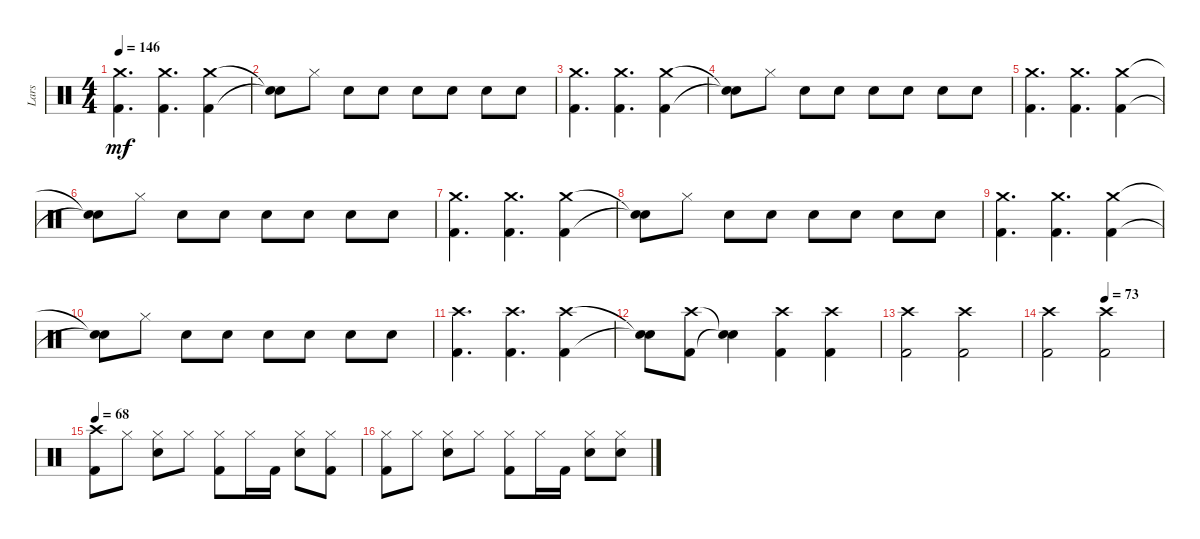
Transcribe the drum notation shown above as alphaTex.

\track ("Lars" "Lars") {instrument percussion}
\staff {score}
\articulation defaults
\ts (4 4)
\tempo 146
\clef neutral
\ks c
("Crash medium (hit)" "Kick (hit) 2").4{d dy mf} ("Crash medium (hit)" "Kick (hit) 2").4{d} ("Crash medium (hit)" "Kick (hit) 2").4 |
("Snare (hit)"{t} "Snare (hit)"{t}).8 "Hi-Hat (closed)".8 "Electric Snare (hit)".8 "Electric Snare (hit)".8 "Electric Snare (hit)".8 "Electric Snare (hit)".8 "Electric Snare (hit)".8 "Electric Snare (hit)".8 |
("Crash medium (hit)" "Kick (hit) 2").4{d} ("Crash medium (hit)" "Kick (hit) 2").4{d} ("Crash medium (hit)" "Kick (hit) 2").4 |
("Snare (hit)"{t} "Snare (hit)"{t}).8 "Hi-Hat (closed)".8 "Electric Snare (hit)".8 "Electric Snare (hit)".8 "Electric Snare (hit)".8 "Electric Snare (hit)".8 "Electric Snare (hit)".8 "Electric Snare (hit)".8 |
("Crash medium (hit)" "Kick (hit) 2").4{d} ("Crash medium (hit)" "Kick (hit) 2").4{d} ("Crash medium (hit)" "Kick (hit) 2").4 |
("Snare (hit)"{t} "Snare (hit)"{t}).8 "Hi-Hat (closed)".8 "Electric Snare (hit)".8 "Electric Snare (hit)".8 "Electric Snare (hit)".8 "Electric Snare (hit)".8 "Electric Snare (hit)".8 "Electric Snare (hit)".8 |
("Crash medium (hit)" "Kick (hit) 2").4{d} ("Crash medium (hit)" "Kick (hit) 2").4{d} ("Crash medium (hit)" "Kick (hit) 2").4 |
("Snare (hit)"{t} "Snare (hit)"{t}).8 "Hi-Hat (closed)".8 "Electric Snare (hit)".8 "Electric Snare (hit)".8 "Electric Snare (hit)".8 "Electric Snare (hit)".8 "Electric Snare (hit)".8 "Electric Snare (hit)".8 |
("Crash medium (hit)" "Kick (hit) 2").4{d} ("Crash medium (hit)" "Kick (hit) 2").4{d} ("Crash medium (hit)" "Kick (hit) 2").4 |
("Snare (hit)"{t} "Snare (hit)"{t}).8 "Hi-Hat (closed)".8 "Electric Snare (hit)".8 "Electric Snare (hit)".8 "Electric Snare (hit)".8 "Electric Snare (hit)".8 "Electric Snare (hit)".8 "Electric Snare (hit)".8 |
("Crash high (hit)" "Kick (hit) 2").4{d} ("Crash high (hit)" "Kick (hit) 2").4{d} ("Crash high (hit)" "Kick (hit) 2").4 |
("Snare (hit)"{t} "Snare (hit)"{t}).8 ("Crash high (hit)" "Kick (hit) 2").8 ("Snare (hit)"{t} "Snare (hit)"{t}).4 ("Crash high (hit)" "Kick (hit) 2").4 ("Crash high (hit)" "Kick (hit) 2").4 |
("Crash high (hit)" "Kick (hit) 2").2 ("Crash high (hit)" "Kick (hit) 2").2 |
\tempo (73 0.5)
("Crash high (hit)" "Kick (hit) 2").2 ("Crash high (hit)" "Kick (hit) 2").2 |
\tempo 68
("Crash high (hit)" "Kick (hit) 2").8 "Hi-Hat (closed)".8 ("Hi-Hat (closed)" "Electric Snare (hit)").8 "Hi-Hat (closed)".8 ("Hi-Hat (closed)" "Kick (hit) 2").8 "Hi-Hat (closed)".16 "Kick (hit) 2".16 ("Hi-Hat (closed)" "Electric Snare (hit)").8 ("Hi-Hat (closed)" "Kick (hit) 2").8 |
("Hi-Hat (closed)" "Kick (hit) 2").8 "Hi-Hat (closed)".8 ("Hi-Hat (closed)" "Electric Snare (hit)").8 "Hi-Hat (closed)".8 ("Hi-Hat (closed)" "Kick (hit) 2").8 "Hi-Hat (closed)".16 "Kick (hit) 2".16 ("Hi-Hat (closed)" "Electric Snare (hit)").8 ("Hi-Hat (closed)" "Electric Snare (hit)").8
